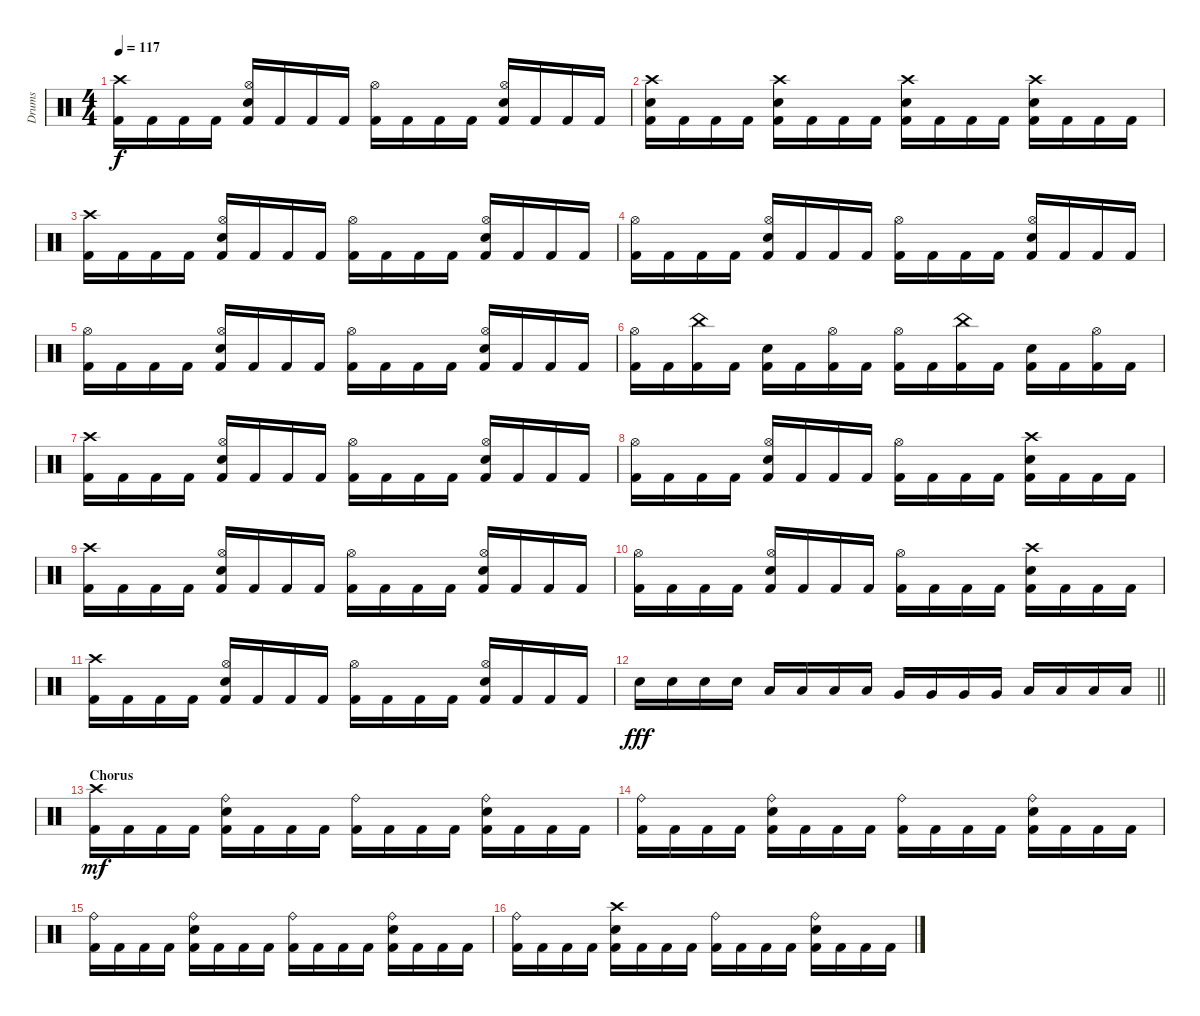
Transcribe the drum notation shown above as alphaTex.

\track ("Drums" "Drums") {instrument percussion}
\staff {score}
\articulation defaults
\ts (4 4)
\tempo 117
\clef neutral
\ks c
("Crash high (hit)" "Kick (hit) 2").16{dy f} "Kick (hit) 2".16 "Kick (hit) 2".16 "Kick (hit) 2".16 ("Hi-Hat (open)" "Snare (hit) 2" "Kick (hit) 2").16 "Kick (hit) 2".16 "Kick (hit) 2".16 "Kick (hit) 2".16 ("Hi-Hat (open)" "Kick (hit) 2").16 "Kick (hit) 2".16 "Kick (hit) 2".16 "Kick (hit) 2".16 ("Hi-Hat (open)" "Snare (hit) 2" "Kick (hit) 2").16 "Kick (hit) 2".16 "Kick (hit) 2".16 "Kick (hit) 2".16 |
("Crash high (hit)" "Snare (hit) 2" "Kick (hit) 2").16 "Kick (hit) 2".16 "Kick (hit) 2".16 "Kick (hit) 2".16 ("Crash high (hit)" "Snare (hit) 2" "Kick (hit) 2").16 "Kick (hit) 2".16 "Kick (hit) 2".16 "Kick (hit) 2".16 ("Crash high (hit)" "Snare (hit) 2" "Kick (hit) 2").16 "Kick (hit) 2".16 "Kick (hit) 2".16 "Kick (hit) 2".16 ("Crash high (hit)" "Snare (hit) 2" "Kick (hit) 2").16 "Kick (hit) 2".16 "Kick (hit) 2".16 "Kick (hit) 2".16 |
("Crash high (hit)" "Kick (hit) 2").16 "Kick (hit) 2".16 "Kick (hit) 2".16 "Kick (hit) 2".16 ("Hi-Hat (open)" "Snare (hit) 2" "Kick (hit) 2").16 "Kick (hit) 2".16 "Kick (hit) 2".16 "Kick (hit) 2".16 ("Hi-Hat (open)" "Kick (hit) 2").16 "Kick (hit) 2".16 "Kick (hit) 2".16 "Kick (hit) 2".16 ("Hi-Hat (open)" "Snare (hit) 2" "Kick (hit) 2").16 "Kick (hit) 2".16 "Kick (hit) 2".16 "Kick (hit) 2".16 |
("Hi-Hat (open)" "Kick (hit) 2").16 "Kick (hit) 2".16 "Kick (hit) 2".16 "Kick (hit) 2".16 ("Hi-Hat (open)" "Snare (hit) 2" "Kick (hit) 2").16 "Kick (hit) 2".16 "Kick (hit) 2".16 "Kick (hit) 2".16 ("Hi-Hat (open)" "Kick (hit) 2").16 "Kick (hit) 2".16 "Kick (hit) 2".16 "Kick (hit) 2".16 ("Hi-Hat (open)" "Snare (hit) 2" "Kick (hit) 2").16 "Kick (hit) 2".16 "Kick (hit) 2".16 "Kick (hit) 2".16 |
("Hi-Hat (open)" "Kick (hit) 2").16 "Kick (hit) 2".16 "Kick (hit) 2".16 "Kick (hit) 2".16 ("Hi-Hat (open)" "Snare (hit) 2" "Kick (hit) 2").16 "Kick (hit) 2".16 "Kick (hit) 2".16 "Kick (hit) 2".16 ("Hi-Hat (open)" "Kick (hit) 2").16 "Kick (hit) 2".16 "Kick (hit) 2".16 "Kick (hit) 2".16 ("Hi-Hat (open)" "Snare (hit) 2" "Kick (hit) 2").16 "Kick (hit) 2".16 "Kick (hit) 2".16 "Kick (hit) 2".16 |
("Hi-Hat (open)" "Kick (hit) 2").16 "Kick (hit) 2".16 ("China (hit)" "Kick (hit) 2").16 "Kick (hit) 2".16 ("Snare (hit) 2" "Kick (hit) 2").16 "Kick (hit) 2".16 ("Hi-Hat (open)" "Kick (hit) 2").16 "Kick (hit) 2".16 ("Hi-Hat (open)" "Kick (hit) 2").16 "Kick (hit) 2".16 ("China (hit)" "Kick (hit) 2").16 "Kick (hit) 2".16 ("Snare (hit) 2" "Kick (hit) 2").16 "Kick (hit) 2".16 ("Hi-Hat (open)" "Kick (hit) 2").16 "Kick (hit) 2".16 |
("Crash high (hit)" "Kick (hit) 2").16 "Kick (hit) 2".16 "Kick (hit) 2".16 "Kick (hit) 2".16 ("Hi-Hat (open)" "Snare (hit) 2" "Kick (hit) 2").16 "Kick (hit) 2".16 "Kick (hit) 2".16 "Kick (hit) 2".16 ("Hi-Hat (open)" "Kick (hit) 2").16 "Kick (hit) 2".16 "Kick (hit) 2".16 "Kick (hit) 2".16 ("Hi-Hat (open)" "Snare (hit) 2" "Kick (hit) 2").16 "Kick (hit) 2".16 "Kick (hit) 2".16 "Kick (hit) 2".16 |
("Hi-Hat (open)" "Kick (hit) 2").16 "Kick (hit) 2".16 "Kick (hit) 2".16 "Kick (hit) 2".16 ("Hi-Hat (open)" "Snare (hit) 2" "Kick (hit) 2").16 "Kick (hit) 2".16 "Kick (hit) 2".16 "Kick (hit) 2".16 ("Hi-Hat (open)" "Kick (hit) 2").16 "Kick (hit) 2".16 "Kick (hit) 2".16 "Kick (hit) 2".16 ("Crash high (hit)" "Snare (hit) 2" "Kick (hit) 2").16 "Kick (hit) 2".16 "Kick (hit) 2".16 "Kick (hit) 2".16 |
("Crash high (hit)" "Kick (hit) 2").16 "Kick (hit) 2".16 "Kick (hit) 2".16 "Kick (hit) 2".16 ("Hi-Hat (open)" "Snare (hit) 2" "Kick (hit) 2").16 "Kick (hit) 2".16 "Kick (hit) 2".16 "Kick (hit) 2".16 ("Hi-Hat (open)" "Kick (hit) 2").16 "Kick (hit) 2".16 "Kick (hit) 2".16 "Kick (hit) 2".16 ("Hi-Hat (open)" "Snare (hit) 2" "Kick (hit) 2").16 "Kick (hit) 2".16 "Kick (hit) 2".16 "Kick (hit) 2".16 |
("Hi-Hat (open)" "Kick (hit) 2").16 "Kick (hit) 2".16 "Kick (hit) 2".16 "Kick (hit) 2".16 ("Hi-Hat (open)" "Snare (hit) 2" "Kick (hit) 2").16 "Kick (hit) 2".16 "Kick (hit) 2".16 "Kick (hit) 2".16 ("Hi-Hat (open)" "Kick (hit) 2").16 "Kick (hit) 2".16 "Kick (hit) 2".16 "Kick (hit) 2".16 ("Crash high (hit)" "Snare (hit) 2" "Kick (hit) 2").16 "Kick (hit) 2".16 "Kick (hit) 2".16 "Kick (hit) 2".16 |
("Crash high (hit)" "Kick (hit) 2").16 "Kick (hit) 2".16 "Kick (hit) 2".16 "Kick (hit) 2".16 ("Hi-Hat (open)" "Snare (hit) 2" "Kick (hit) 2").16 "Kick (hit) 2".16 "Kick (hit) 2".16 "Kick (hit) 2".16 ("Hi-Hat (open)" "Kick (hit) 2").16 "Kick (hit) 2".16 "Kick (hit) 2".16 "Kick (hit) 2".16 ("Hi-Hat (open)" "Snare (hit) 2" "Kick (hit) 2").16 "Kick (hit) 2".16 "Kick (hit) 2".16 "Kick (hit) 2".16 |
\barLineRight lightlight "Snare (hit) 2".16{dy fff} "Snare (hit) 2".16 "Snare (hit) 2".16 "Snare (hit) 2".16 "Low Tom (hit)".16 "Low Tom (hit)".16 "Low Tom (hit)".16 "Low Tom (hit)".16 "Very Low Tom (hit)".16 "Very Low Tom (hit)".16 "Very Low Tom (hit)".16 "Very Low Tom (hit)".16 "Low Floor Tom (hit)".16 "Low Floor Tom (hit)".16 "Low Floor Tom (hit)".16 "Low Floor Tom (hit)".16
|
\section ("" "Chorus")
("Crash high (hit)" "Kick (hit) 2").16{dy mf} "Kick (hit) 2".16 "Kick (hit) 2".16 "Kick (hit) 2".16 ("Ride (bell)" "Snare (hit) 2" "Kick (hit) 2").16 "Kick (hit) 2".16 "Kick (hit) 2".16 "Kick (hit) 2".16 ("Ride (bell)" "Kick (hit) 2").16 "Kick (hit) 2".16 "Kick (hit) 2".16 "Kick (hit) 2".16 ("Ride (bell)" "Snare (hit) 2" "Kick (hit) 2").16 "Kick (hit) 2".16 "Kick (hit) 2".16 "Kick (hit) 2".16 |
("Ride (bell)" "Kick (hit) 2").16 "Kick (hit) 2".16 "Kick (hit) 2".16 "Kick (hit) 2".16 ("Ride (bell)" "Snare (hit) 2" "Kick (hit) 2").16 "Kick (hit) 2".16 "Kick (hit) 2".16 "Kick (hit) 2".16 ("Ride (bell)" "Kick (hit) 2").16 "Kick (hit) 2".16 "Kick (hit) 2".16 "Kick (hit) 2".16 ("Ride (bell)" "Snare (hit) 2" "Kick (hit) 2").16 "Kick (hit) 2".16 "Kick (hit) 2".16 "Kick (hit) 2".16 |
("Ride (bell)" "Kick (hit) 2").16 "Kick (hit) 2".16 "Kick (hit) 2".16 "Kick (hit) 2".16 ("Ride (bell)" "Snare (hit) 2" "Kick (hit) 2").16 "Kick (hit) 2".16 "Kick (hit) 2".16 "Kick (hit) 2".16 ("Ride (bell)" "Kick (hit) 2").16 "Kick (hit) 2".16 "Kick (hit) 2".16 "Kick (hit) 2".16 ("Ride (bell)" "Snare (hit) 2" "Kick (hit) 2").16 "Kick (hit) 2".16 "Kick (hit) 2".16 "Kick (hit) 2".16 |
("Ride (bell)" "Kick (hit) 2").16 "Kick (hit) 2".16 "Kick (hit) 2".16 "Kick (hit) 2".16 ("Crash high (hit)" "Snare (hit) 2" "Kick (hit) 2").16 "Kick (hit) 2".16 "Kick (hit) 2".16 "Kick (hit) 2".16 ("Ride (bell)" "Kick (hit) 2").16 "Kick (hit) 2".16 "Kick (hit) 2".16 "Kick (hit) 2".16 ("Ride (bell)" "Snare (hit) 2" "Kick (hit) 2").16 "Kick (hit) 2".16 "Kick (hit) 2".16 "Kick (hit) 2".16
